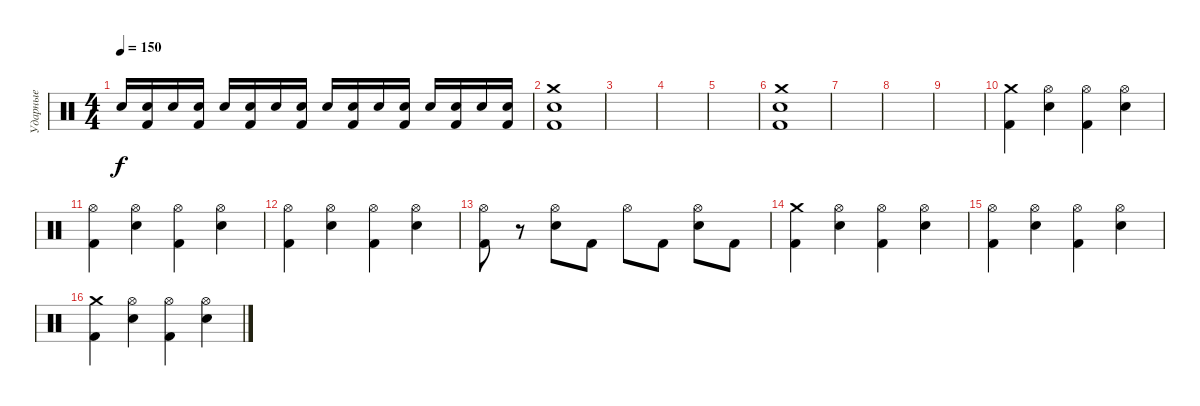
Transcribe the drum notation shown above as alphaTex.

\track ("Ударные" "Ударные") {instrument percussion}
\staff {score}
\articulation defaults
\ts (4 4)
\tempo 150
\clef neutral
\ks c "Electric Snare (hit)".16{dy f}
("Electric Snare (hit)" "Kick (hit) 2").16 "Electric Snare (hit)".16 ("Electric Snare (hit)" "Kick (hit) 2").16 "Electric Snare (hit)".16 ("Electric Snare (hit)" "Kick (hit) 2").16 "Electric Snare (hit)".16 ("Electric Snare (hit)" "Kick (hit) 2").16 "Electric Snare (hit)".16 ("Electric Snare (hit)" "Kick (hit) 2").16 "Electric Snare (hit)".16 ("Electric Snare (hit)" "Kick (hit) 2").16 "Electric Snare (hit)".16 ("Electric Snare (hit)" "Kick (hit) 2").16 "Electric Snare (hit)".16 ("Electric Snare (hit)" "Kick (hit) 2").16 |
("Crash medium (hit)" "Electric Snare (hit)" "Kick (hit) 2").1 |
|
|
|
("Crash medium (hit)" "Snare (hit) 2" "Kick (hit) 2").1 |
|
|
|
("Crash medium (hit)" "Kick (hit) 2").4 ("Hi-Hat (open)" "Electric Snare (hit)").4 ("Hi-Hat (open)" "Kick (hit) 2").4 ("Hi-Hat (open)" "Electric Snare (hit)").4 |
("Hi-Hat (open)" "Kick (hit) 2").4 ("Hi-Hat (open)" "Electric Snare (hit)").4 ("Hi-Hat (open)" "Kick (hit) 2").4 ("Hi-Hat (open)" "Electric Snare (hit)").4 |
("Hi-Hat (open)" "Kick (hit) 2").4 ("Hi-Hat (open)" "Electric Snare (hit)").4 ("Hi-Hat (open)" "Kick (hit) 2").4 ("Hi-Hat (open)" "Electric Snare (hit)").4 |
("Hi-Hat (open)" "Kick (hit) 2").8 r.8 ("Hi-Hat (open)" "Electric Snare (hit)").8 "Kick (hit) 2".8 "Hi-Hat (open)".8 "Kick (hit) 2".8 ("Hi-Hat (open)" "Electric Snare (hit)").8 "Kick (hit) 2".8 |
("Crash medium (hit)" "Kick (hit) 2").4 ("Hi-Hat (open)" "Electric Snare (hit)").4 ("Hi-Hat (open)" "Kick (hit) 2").4 ("Hi-Hat (open)" "Electric Snare (hit)").4 |
("Hi-Hat (open)" "Kick (hit) 2").4 ("Hi-Hat (open)" "Electric Snare (hit)").4 ("Hi-Hat (open)" "Kick (hit) 2").4 ("Hi-Hat (open)" "Electric Snare (hit)").4 |
("Crash medium (hit)" "Kick (hit) 2").4 ("Hi-Hat (open)" "Electric Snare (hit)").4 ("Hi-Hat (open)" "Kick (hit) 2").4 ("Hi-Hat (open)" "Electric Snare (hit)").4
